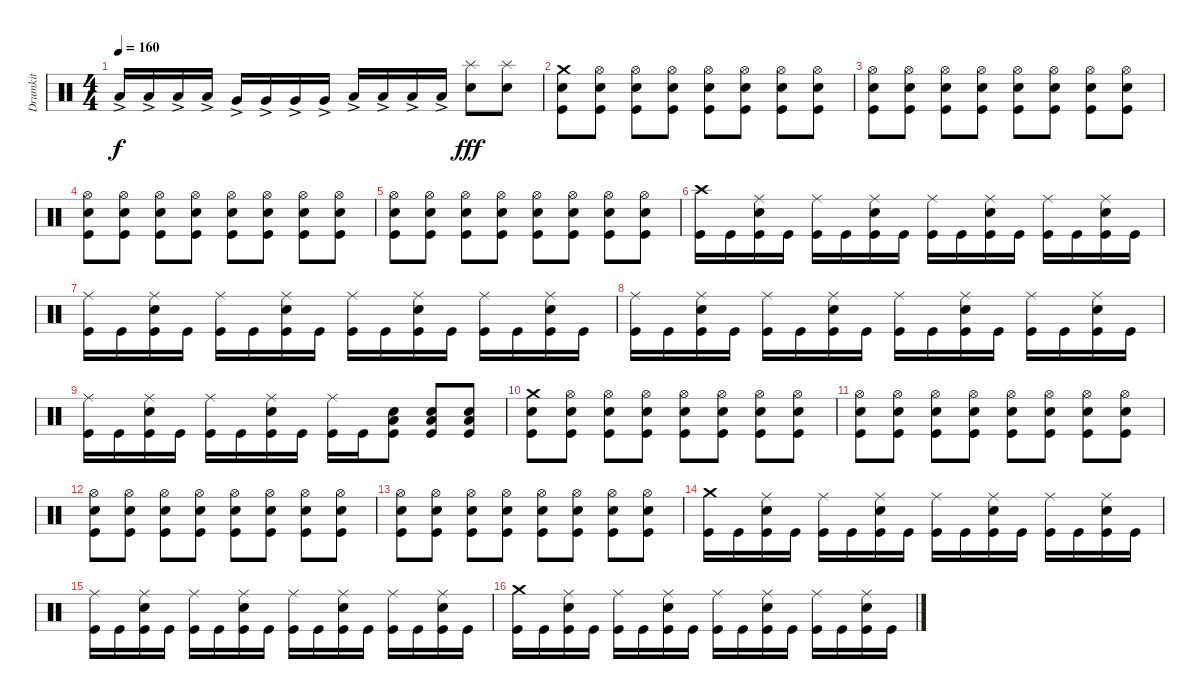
\track ("Drumkit" "Drumkit") {instrument percussion}
\staff {score}
\articulation defaults
\ts (4 4)
\tempo 160
\clef neutral
\ks c "Low Tom (hit)"{ac}.16{dy f} "Low Tom (hit)"{ac}.16 "Low Tom (hit)"{ac}.16 "Low Tom (hit)"{ac}.16 "Very Low Tom (hit)"{ac}.16 "Very Low Tom (hit)"{ac}.16 "Very Low Tom (hit)"{ac}.16 "Very Low Tom (hit)"{ac}.16 "Low Floor Tom (hit)"{ac}.16 "Low Floor Tom (hit)"{ac}.16 "Low Floor Tom (hit)"{ac}.16 "Low Floor Tom (hit)"{ac}.16
("Snare (hit) 2" "Splash (hit)").8{dy fff} ("Snare (hit) 2" "Splash (hit)").8 |
\section ("" "")
("Kick (hit)" "Crash medium (hit)" "Snare (hit) 2").8 ("Kick (hit)" "Snare (hit) 2" "Hi-Hat (open)").8 ("Kick (hit)" "Hi-Hat (open)" "Snare (hit) 2").8 ("Kick (hit)" "Snare (hit) 2" "Hi-Hat (open)").8 ("Kick (hit)" "Hi-Hat (open)" "Snare (hit) 2").8 ("Kick (hit)" "Snare (hit) 2" "Hi-Hat (open)").8 ("Kick (hit)" "Hi-Hat (open)" "Snare (hit) 2").8 ("Kick (hit)" "Snare (hit) 2" "Hi-Hat (open)").8 |
("Kick (hit)" "Snare (hit) 2" "Hi-Hat (open)").8 ("Kick (hit)" "Snare (hit) 2" "Hi-Hat (open)").8 ("Kick (hit)" "Hi-Hat (open)" "Snare (hit) 2").8 ("Kick (hit)" "Snare (hit) 2" "Hi-Hat (open)").8 ("Kick (hit)" "Hi-Hat (open)" "Snare (hit) 2").8 ("Kick (hit)" "Snare (hit) 2" "Hi-Hat (open)").8 ("Kick (hit)" "Hi-Hat (open)" "Snare (hit) 2").8 ("Kick (hit)" "Snare (hit) 2" "Hi-Hat (open)").8 |
("Kick (hit)" "Snare (hit) 2" "Hi-Hat (open)").8 ("Kick (hit)" "Snare (hit) 2" "Hi-Hat (open)").8 ("Kick (hit)" "Hi-Hat (open)" "Snare (hit) 2").8 ("Kick (hit)" "Snare (hit) 2" "Hi-Hat (open)").8 ("Kick (hit)" "Hi-Hat (open)" "Snare (hit) 2").8 ("Kick (hit)" "Snare (hit) 2" "Hi-Hat (open)").8 ("Kick (hit)" "Hi-Hat (open)" "Snare (hit) 2").8 ("Kick (hit)" "Snare (hit) 2" "Hi-Hat (open)").8 |
("Kick (hit)" "Snare (hit) 2" "Hi-Hat (open)").8 ("Kick (hit)" "Snare (hit) 2" "Hi-Hat (open)").8 ("Kick (hit)" "Hi-Hat (open)" "Snare (hit) 2").8 ("Kick (hit)" "Snare (hit) 2" "Hi-Hat (open)").8 ("Kick (hit)" "Hi-Hat (open)" "Snare (hit) 2").8 ("Kick (hit)" "Snare (hit) 2" "Hi-Hat (open)").8 ("Kick (hit)" "Hi-Hat (open)" "Snare (hit) 2").8 ("Kick (hit)" "Snare (hit) 2" "Hi-Hat (open)").8 |
\section ("" "")
("Kick (hit)" "Crash high (hit)").16 "Kick (hit)".16 ("Kick (hit)" "Snare (hit) 2" "Ride (middle)").16 "Kick (hit)".16 ("Kick (hit)" "Ride (middle)").16 "Kick (hit)".16 ("Kick (hit)" "Snare (hit) 2" "Ride (middle)").16 "Kick (hit)".16 ("Kick (hit)" "Ride (middle)").16 "Kick (hit)".16 ("Kick (hit)" "Snare (hit) 2" "Ride (middle)").16 "Kick (hit)".16 ("Kick (hit)" "Ride (middle)").16 "Kick (hit)".16 ("Kick (hit)" "Snare (hit) 2" "Ride (middle)").16 "Kick (hit)".16 |
("Kick (hit)" "Ride (middle)").16 "Kick (hit)".16 ("Kick (hit)" "Snare (hit) 2" "Ride (middle)").16 "Kick (hit)".16 ("Kick (hit)" "Ride (middle)").16 "Kick (hit)".16 ("Kick (hit)" "Snare (hit) 2" "Ride (middle)").16 "Kick (hit)".16 ("Kick (hit)" "Ride (middle)").16 "Kick (hit)".16 ("Kick (hit)" "Snare (hit) 2" "Ride (middle)").16 "Kick (hit)".16 ("Kick (hit)" "Ride (middle)").16 "Kick (hit)".16 ("Kick (hit)" "Snare (hit) 2" "Ride (middle)").16 "Kick (hit)".16 |
("Kick (hit)" "Ride (middle)").16 "Kick (hit)".16 ("Kick (hit)" "Snare (hit) 2" "Ride (middle)").16 "Kick (hit)".16 ("Kick (hit)" "Ride (middle)").16 "Kick (hit)".16 ("Kick (hit)" "Snare (hit) 2" "Ride (middle)").16 "Kick (hit)".16 ("Kick (hit)" "Ride (middle)").16 "Kick (hit)".16 ("Kick (hit)" "Snare (hit) 2" "Ride (middle)").16 "Kick (hit)".16 ("Kick (hit)" "Ride (middle)").16 "Kick (hit)".16 ("Kick (hit)" "Snare (hit) 2" "Ride (middle)").16 "Kick (hit)".16 |
("Kick (hit)" "Ride (middle)").16 "Kick (hit)".16 ("Kick (hit)" "Snare (hit) 2" "Ride (middle)").16 "Kick (hit)".16 ("Kick (hit)" "Ride (middle)").16 "Kick (hit)".16 ("Kick (hit)" "Snare (hit) 2" "Ride (middle)").16 "Kick (hit)".16 ("Kick (hit)" "Ride (middle)").16 "Kick (hit)".16 ("Kick (hit)" "Snare (hit) 2" "Low Floor Tom (hit)").8 ("Kick (hit)" "Snare (hit) 2" "Low Floor Tom (hit)").8 ("Kick (hit)" "Snare (hit) 2" "Low Floor Tom (hit)").8 |
\section ("" "")
("Kick (hit)" "Crash medium (hit)" "Snare (hit) 2").8 ("Kick (hit)" "Snare (hit) 2" "Hi-Hat (open)").8 ("Kick (hit)" "Hi-Hat (open)" "Snare (hit) 2").8 ("Kick (hit)" "Snare (hit) 2" "Hi-Hat (open)").8 ("Kick (hit)" "Hi-Hat (open)" "Snare (hit) 2").8 ("Kick (hit)" "Snare (hit) 2" "Hi-Hat (open)").8 ("Kick (hit)" "Hi-Hat (open)" "Snare (hit) 2").8 ("Kick (hit)" "Snare (hit) 2" "Hi-Hat (open)").8 |
("Kick (hit)" "Hi-Hat (open)" "Snare (hit) 2").8 ("Kick (hit)" "Snare (hit) 2" "Hi-Hat (open)").8 ("Kick (hit)" "Hi-Hat (open)" "Snare (hit) 2").8 ("Kick (hit)" "Snare (hit) 2" "Hi-Hat (open)").8 ("Kick (hit)" "Hi-Hat (open)" "Snare (hit) 2").8 ("Kick (hit)" "Snare (hit) 2" "Hi-Hat (open)").8 ("Kick (hit)" "Hi-Hat (open)" "Snare (hit) 2").8 ("Kick (hit)" "Snare (hit) 2" "Hi-Hat (open)").8 |
("Kick (hit)" "Hi-Hat (open)" "Snare (hit) 2").8 ("Kick (hit)" "Snare (hit) 2" "Hi-Hat (open)").8 ("Kick (hit)" "Hi-Hat (open)" "Snare (hit) 2").8 ("Kick (hit)" "Snare (hit) 2" "Hi-Hat (open)").8 ("Kick (hit)" "Hi-Hat (open)" "Snare (hit) 2").8 ("Kick (hit)" "Snare (hit) 2" "Hi-Hat (open)").8 ("Kick (hit)" "Hi-Hat (open)" "Snare (hit) 2").8 ("Kick (hit)" "Snare (hit) 2" "Hi-Hat (open)").8 |
("Kick (hit)" "Hi-Hat (open)" "Snare (hit) 2").8 ("Kick (hit)" "Snare (hit) 2" "Hi-Hat (open)").8 ("Kick (hit)" "Hi-Hat (open)" "Snare (hit) 2").8 ("Kick (hit)" "Snare (hit) 2" "Hi-Hat (open)").8 ("Kick (hit)" "Hi-Hat (open)" "Snare (hit) 2").8 ("Kick (hit)" "Snare (hit) 2" "Hi-Hat (open)").8 ("Kick (hit)" "Hi-Hat (open)" "Snare (hit) 2").8 ("Kick (hit)" "Snare (hit) 2" "Hi-Hat (open)").8 |
\section ("" "")
("Kick (hit)" "Crash medium (hit)").16 "Kick (hit)".16 ("Kick (hit)" "Snare (hit) 2" "Ride (middle)").16 "Kick (hit)".16 ("Kick (hit)" "Ride (middle)").16 "Kick (hit)".16 ("Kick (hit)" "Snare (hit) 2" "Ride (middle)").16 "Kick (hit)".16 ("Kick (hit)" "Ride (middle)").16 "Kick (hit)".16 ("Kick (hit)" "Snare (hit) 2" "Ride (middle)").16 "Kick (hit)".16 ("Kick (hit)" "Ride (middle)").16 "Kick (hit)".16 ("Kick (hit)" "Snare (hit) 2" "Ride (middle)").16 "Kick (hit)".16 |
("Kick (hit)" "Ride (middle)").16 "Kick (hit)".16 ("Kick (hit)" "Snare (hit) 2" "Ride (middle)").16 "Kick (hit)".16 ("Kick (hit)" "Ride (middle)").16 "Kick (hit)".16 ("Kick (hit)" "Snare (hit) 2" "Ride (middle)").16 "Kick (hit)".16 ("Kick (hit)" "Ride (middle)").16 "Kick (hit)".16 ("Kick (hit)" "Snare (hit) 2" "Ride (middle)").16 "Kick (hit)".16 ("Kick (hit)" "Ride (middle)").16 "Kick (hit)".16 ("Kick (hit)" "Snare (hit) 2" "Ride (middle)").16 "Kick (hit)".16 |
("Kick (hit)" "Crash medium (hit)").16 "Kick (hit)".16 ("Kick (hit)" "Snare (hit) 2" "Ride (middle)").16 "Kick (hit)".16 ("Kick (hit)" "Ride (middle)").16 "Kick (hit)".16 ("Kick (hit)" "Snare (hit) 2" "Ride (middle)").16 "Kick (hit)".16 ("Kick (hit)" "Ride (middle)").16 "Kick (hit)".16 ("Kick (hit)" "Snare (hit) 2" "Ride (middle)").16 "Kick (hit)".16 ("Kick (hit)" "Ride (middle)").16 "Kick (hit)".16 ("Kick (hit)" "Snare (hit) 2" "Ride (middle)").16 "Kick (hit)".16
